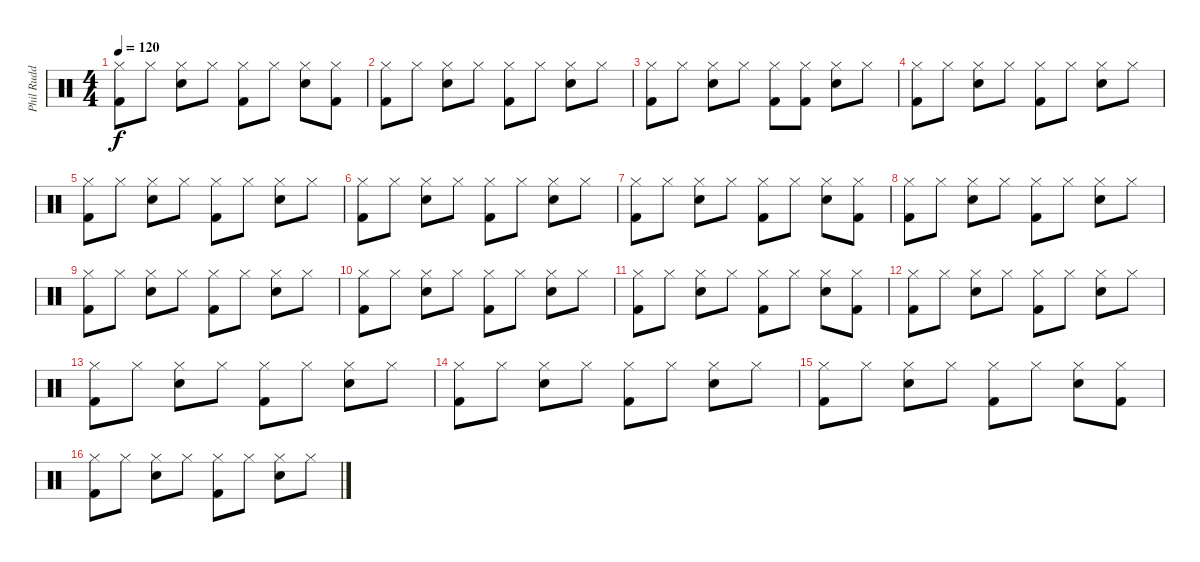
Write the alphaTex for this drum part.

\track ("Phil Rudd" "Phil Rudd") {instrument percussion}
\staff {score}
\articulation defaults
\ts (4 4)
\tempo 120
\clef neutral
\ks c
("Hi-Hat (closed)" "Kick (hit) 2").8{dy f} "Hi-Hat (closed)".8 ("Hi-Hat (closed)" "Snare (hit) 2").8 "Hi-Hat (closed)".8 ("Hi-Hat (closed)" "Kick (hit) 2").8 "Hi-Hat (closed)".8 ("Hi-Hat (closed)" "Snare (hit) 2").8 ("Hi-Hat (closed)" "Kick (hit) 2").8 |
("Hi-Hat (closed)" "Kick (hit) 2").8 "Hi-Hat (closed)".8 ("Hi-Hat (closed)" "Snare (hit) 2").8 "Hi-Hat (closed)".8 ("Hi-Hat (closed)" "Kick (hit) 2").8 "Hi-Hat (closed)".8 ("Hi-Hat (closed)" "Snare (hit) 2").8 "Hi-Hat (closed)".8 |
("Hi-Hat (closed)" "Kick (hit) 2").8 "Hi-Hat (closed)".8 ("Hi-Hat (closed)" "Snare (hit) 2").8 "Hi-Hat (closed)".8 ("Hi-Hat (closed)" "Kick (hit) 2").8 ("Hi-Hat (closed)" "Kick (hit) 2").8 ("Hi-Hat (closed)" "Snare (hit) 2").8 "Hi-Hat (closed)".8 |
("Hi-Hat (closed)" "Kick (hit) 2").8 "Hi-Hat (closed)".8 ("Hi-Hat (closed)" "Snare (hit) 2").8 "Hi-Hat (closed)".8 ("Hi-Hat (closed)" "Kick (hit) 2").8 "Hi-Hat (closed)".8 ("Hi-Hat (closed)" "Snare (hit) 2").8 "Hi-Hat (closed)".8 |
("Hi-Hat (closed)" "Kick (hit) 2").8 "Hi-Hat (closed)".8 ("Hi-Hat (closed)" "Snare (hit) 2").8 "Hi-Hat (closed)".8 ("Hi-Hat (closed)" "Kick (hit) 2").8 "Hi-Hat (closed)".8 ("Hi-Hat (closed)" "Snare (hit) 2").8 "Hi-Hat (closed)".8 |
("Hi-Hat (closed)" "Kick (hit) 2").8 "Hi-Hat (closed)".8 ("Hi-Hat (closed)" "Snare (hit) 2").8 "Hi-Hat (closed)".8 ("Hi-Hat (closed)" "Kick (hit) 2").8 "Hi-Hat (closed)".8 ("Hi-Hat (closed)" "Snare (hit) 2").8 "Hi-Hat (closed)".8 |
("Hi-Hat (closed)" "Kick (hit) 2").8 "Hi-Hat (closed)".8 ("Hi-Hat (closed)" "Snare (hit) 2").8 "Hi-Hat (closed)".8 ("Hi-Hat (closed)" "Kick (hit) 2").8 "Hi-Hat (closed)".8 ("Hi-Hat (closed)" "Snare (hit) 2").8 ("Hi-Hat (closed)" "Kick (hit) 2").8 |
("Hi-Hat (closed)" "Kick (hit) 2").8 "Hi-Hat (closed)".8 ("Hi-Hat (closed)" "Snare (hit) 2").8 "Hi-Hat (closed)".8 ("Hi-Hat (closed)" "Kick (hit) 2").8 "Hi-Hat (closed)".8 ("Hi-Hat (closed)" "Snare (hit) 2").8 "Hi-Hat (closed)".8 |
("Hi-Hat (closed)" "Kick (hit) 2").8 "Hi-Hat (closed)".8 ("Hi-Hat (closed)" "Snare (hit) 2").8 "Hi-Hat (closed)".8 ("Hi-Hat (closed)" "Kick (hit) 2").8 "Hi-Hat (closed)".8 ("Hi-Hat (closed)" "Snare (hit) 2").8 "Hi-Hat (closed)".8 |
("Hi-Hat (closed)" "Kick (hit) 2").8 "Hi-Hat (closed)".8 ("Hi-Hat (closed)" "Snare (hit) 2").8 "Hi-Hat (closed)".8 ("Hi-Hat (closed)" "Kick (hit) 2").8 "Hi-Hat (closed)".8 ("Hi-Hat (closed)" "Snare (hit) 2").8 "Hi-Hat (closed)".8 |
("Hi-Hat (closed)" "Kick (hit) 2").8 "Hi-Hat (closed)".8 ("Hi-Hat (closed)" "Snare (hit) 2").8 "Hi-Hat (closed)".8 ("Hi-Hat (closed)" "Kick (hit) 2").8 "Hi-Hat (closed)".8 ("Hi-Hat (closed)" "Snare (hit) 2").8 ("Hi-Hat (closed)" "Kick (hit) 2").8 |
("Hi-Hat (closed)" "Kick (hit) 2").8 "Hi-Hat (closed)".8 ("Hi-Hat (closed)" "Snare (hit) 2").8 "Hi-Hat (closed)".8 ("Hi-Hat (closed)" "Kick (hit) 2").8 "Hi-Hat (closed)".8 ("Hi-Hat (closed)" "Snare (hit) 2").8 "Hi-Hat (closed)".8 |
("Hi-Hat (closed)" "Kick (hit) 2").8 "Hi-Hat (closed)".8 ("Hi-Hat (closed)" "Snare (hit) 2").8 "Hi-Hat (closed)".8 ("Hi-Hat (closed)" "Kick (hit) 2").8 "Hi-Hat (closed)".8 ("Hi-Hat (closed)" "Snare (hit) 2").8 "Hi-Hat (closed)".8 |
("Hi-Hat (closed)" "Kick (hit) 2").8 "Hi-Hat (closed)".8 ("Hi-Hat (closed)" "Snare (hit) 2").8 "Hi-Hat (closed)".8 ("Hi-Hat (closed)" "Kick (hit) 2").8 "Hi-Hat (closed)".8 ("Hi-Hat (closed)" "Snare (hit) 2").8 "Hi-Hat (closed)".8 |
("Hi-Hat (closed)" "Kick (hit) 2").8 "Hi-Hat (closed)".8 ("Hi-Hat (closed)" "Snare (hit) 2").8 "Hi-Hat (closed)".8 ("Hi-Hat (closed)" "Kick (hit) 2").8 "Hi-Hat (closed)".8 ("Hi-Hat (closed)" "Snare (hit) 2").8 ("Hi-Hat (closed)" "Kick (hit) 2").8 |
("Hi-Hat (closed)" "Kick (hit) 2").8 "Hi-Hat (closed)".8 ("Hi-Hat (closed)" "Snare (hit) 2").8 "Hi-Hat (closed)".8 ("Hi-Hat (closed)" "Kick (hit) 2").8 "Hi-Hat (closed)".8 ("Hi-Hat (closed)" "Snare (hit) 2").8 "Hi-Hat (closed)".8
